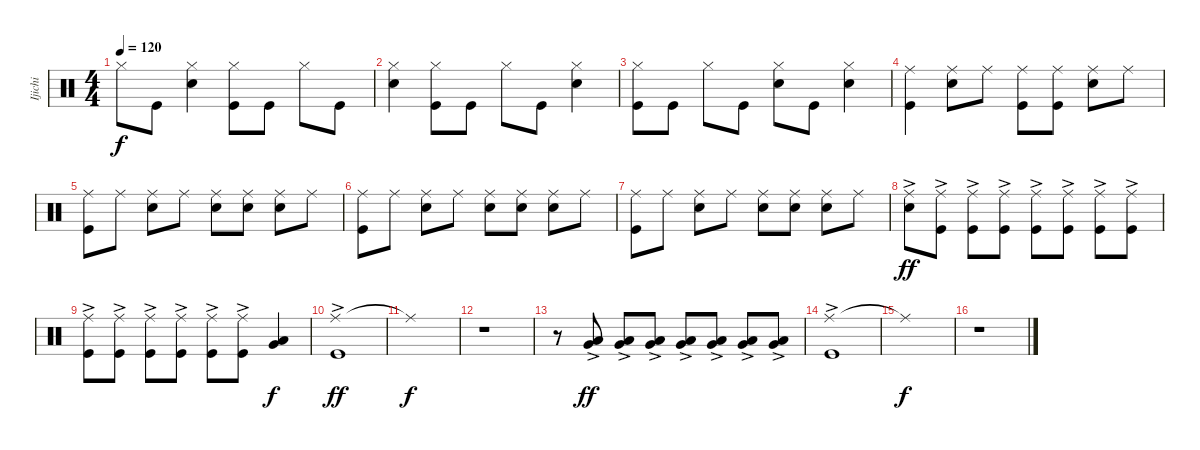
\track ("Ijichi" "Ijichi") {instrument percussion}
\staff {score}
\articulation defaults
\ts (4 4)
\tempo 120
\clef neutral
\ks c "Hi-Hat (closed)".8{dy f} "Kick (hit)".8
("Hi-Hat (closed)" "Snare (hit) 2").4 ("Hi-Hat (closed)" "Kick (hit)").8 "Kick (hit)".8 "Hi-Hat (closed)".8 "Kick (hit)".8 |
("Hi-Hat (closed)" "Snare (hit) 2").4 ("Hi-Hat (closed)" "Kick (hit)").8 "Kick (hit)".8 "Hi-Hat (closed)".8 "Kick (hit)".8 ("Hi-Hat (closed)" "Snare (hit) 2").4 |
("Hi-Hat (closed)" "Kick (hit)").8 "Kick (hit)".8 "Hi-Hat (closed)".8 "Kick (hit)".8 ("Hi-Hat (closed)" "Snare (hit) 2").8 "Kick (hit)".8 ("Hi-Hat (closed)" "Snare (hit) 2").4 |
("Ride (middle)" "Kick (hit)").4 ("Ride (middle)" "Snare (hit) 2").8 "Ride (middle)".8 ("Ride (middle)" "Kick (hit)").8 ("Ride (middle)" "Kick (hit)").8 ("Ride (middle)" "Snare (hit) 2").8 "Ride (middle)".8 |
("Ride (middle)" "Kick (hit)").8 "Ride (middle)".8 ("Ride (middle)" "Snare (hit) 2").8 "Ride (middle)".8 ("Ride (middle)" "Snare (hit) 2").8 ("Ride (middle)" "Snare (hit) 2").8 ("Ride (middle)" "Snare (hit) 2").8 "Ride (middle)".8 |
("Ride (middle)" "Kick (hit)").8 "Ride (middle)".8 ("Ride (middle)" "Snare (hit) 2").8 "Ride (middle)".8 ("Ride (middle)" "Snare (hit) 2").8 ("Ride (middle)" "Snare (hit) 2").8 ("Ride (middle)" "Snare (hit) 2").8 "Ride (middle)".8 |
("Ride (middle)" "Kick (hit)").8 "Ride (middle)".8 ("Ride (middle)" "Snare (hit) 2").8 "Ride (middle)".8 ("Ride (middle)" "Snare (hit) 2").8 ("Ride (middle)" "Snare (hit) 2").8 ("Ride (middle)" "Snare (hit) 2").8 "Ride (middle)".8 |
("Ride (middle)"{ac} "Snare (hit) 2"{ac}).8{dy ff} ("Ride (middle)"{ac} "Kick (hit)"{ac}).8 ("Ride (middle)"{ac} "Kick (hit)"{ac}).8 ("Ride (middle)"{ac} "Kick (hit)"{ac}).8 ("Ride (middle)"{ac} "Kick (hit)"{ac}).8 ("Ride (middle)"{ac} "Kick (hit)"{ac}).8 ("Ride (middle)"{ac} "Kick (hit)"{ac}).8 ("Ride (middle)"{ac} "Kick (hit)"{ac}).8 |
("Ride (middle)"{ac} "Kick (hit)"{ac}).8 ("Ride (middle)"{ac} "Kick (hit)"{ac}).8 ("Ride (middle)"{ac} "Kick (hit)"{ac}).8 ("Ride (middle)"{ac} "Kick (hit)"{ac}).8 ("Ride (middle)"{ac} "Kick (hit)"{ac}).8 ("Ride (middle)"{ac} "Kick (hit)"{ac}).8 ("Low Tom (hit)" "Very Low Tom (hit)").4{dy f} |
("Ride (middle)"{ac} "Kick (hit)").1{dy ff} |
"Ride (middle)"{t}.1{dy f} |
r.1 |
r.8 ("Low Tom (hit)"{ac} "Very Low Tom (hit)"{ac}).8{dy ff} ("Low Tom (hit)"{ac} "Very Low Tom (hit)"{ac}).8 ("Low Tom (hit)"{ac} "Very Low Tom (hit)"{ac}).8 ("Low Tom (hit)"{ac} "Very Low Tom (hit)"{ac}).8 ("Low Tom (hit)"{ac} "Very Low Tom (hit)"{ac}).8 ("Low Tom (hit)"{ac} "Very Low Tom (hit)"{ac}).8 ("Low Tom (hit)"{ac} "Very Low Tom (hit)"{ac}).8 |
("Ride (middle)"{ac} "Kick (hit)").1 |
"Ride (middle)"{t}.1{dy f} |
r.1
